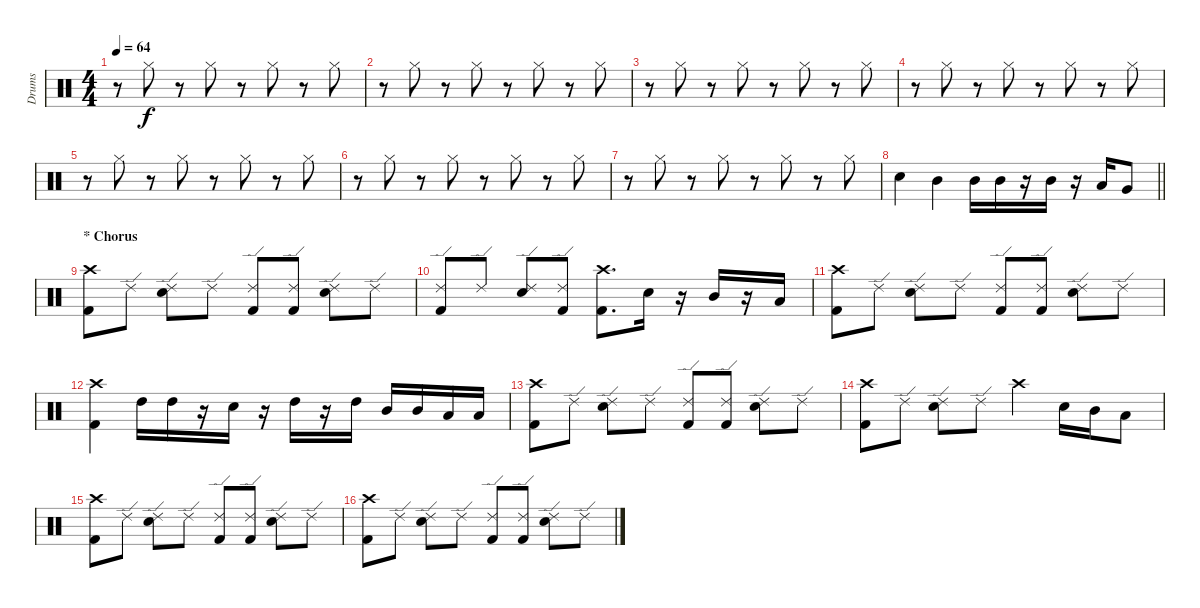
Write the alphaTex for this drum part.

\track ("Drums" "Drums") {instrument percussion}
\staff {score}
\articulation defaults
\ts (4 4)
\tempo 64
\clef neutral
\ks c
r.8{dy f} "Hi-Hat (closed)".8 r.8 "Hi-Hat (closed)".8 r.8 "Hi-Hat (closed)".8 r.8 "Hi-Hat (closed)".8 |
r.8 "Hi-Hat (closed)".8 r.8 "Hi-Hat (closed)".8 r.8 "Hi-Hat (closed)".8 r.8 "Hi-Hat (closed)".8 |
r.8 "Hi-Hat (closed)".8 r.8 "Hi-Hat (closed)".8 r.8 "Hi-Hat (closed)".8 r.8 "Hi-Hat (closed)".8 |
r.8 "Hi-Hat (closed)".8 r.8 "Hi-Hat (closed)".8 r.8 "Hi-Hat (closed)".8 r.8 "Hi-Hat (closed)".8 |
r.8 "Hi-Hat (closed)".8 r.8 "Hi-Hat (closed)".8 r.8 "Hi-Hat (closed)".8 r.8 "Hi-Hat (closed)".8 |
r.8 "Hi-Hat (closed)".8 r.8 "Hi-Hat (closed)".8 r.8 "Hi-Hat (closed)".8 r.8 "Hi-Hat (closed)".8 |
r.8 "Hi-Hat (closed)".8 r.8 "Hi-Hat (closed)".8 r.8 "Hi-Hat (closed)".8 r.8 "Hi-Hat (closed)".8 |
\barLineRight lightlight "Electric Snare (hit)".4 "Mid Tom (hit)".4 "Mid Tom (hit)".16 "Mid Tom (hit)".16
r.16 "Mid Tom (hit)".16 r.16 "Low Tom (hit)".16 "Very Low Tom (hit)".8 |
\section ("" "* Chorus")
("Crash high (hit)" "Kick (hit) 2").8 "Ride (edge) 2".8 ("Ride (edge) 2" "Electric Snare (hit)").8 "Ride (edge) 2".8 ("Ride (edge) 2" "Kick (hit) 2").8 ("Ride (edge) 2" "Kick (hit) 2").8 ("Ride (edge) 2" "Electric Snare (hit)").8 "Ride (edge) 2".8 |
("Ride (edge) 2" "Kick (hit) 2").8 "Ride (edge) 2".8 ("Ride (edge) 2" "Electric Snare (hit)").8 ("Ride (edge) 2" "Kick (hit) 2").8 ("Crash high (hit)" "Kick (hit) 2").8{d} "Electric Snare (hit)".16 r.16 "Mid Tom (hit)".16 r.16 "Low Tom (hit)".16 |
("Crash high (hit)" "Kick (hit) 2").8 "Ride (edge) 2".8 ("Ride (edge) 2" "Electric Snare (hit)").8 "Ride (edge) 2".8 ("Ride (edge) 2" "Kick (hit) 2").8 ("Ride (edge) 2" "Kick (hit) 2").8 ("Ride (edge) 2" "Electric Snare (hit)").8 "Ride (edge) 2".8 |
("Crash high (hit)" "Kick (hit) 2").4 "High Tom (hit)".16 "High Tom (hit)".16 r.16 "Electric Snare (hit)".16 r.16 "High Tom (hit)".16 r.16 "High Tom (hit)".16 "Mid Tom (hit)".16 "Mid Tom (hit)".16 "Low Tom (hit)".16 "Low Tom (hit)".16 |
("Crash high (hit)" "Kick (hit) 2").8 "Ride (edge) 2".8 ("Ride (edge) 2" "Electric Snare (hit)").8 "Ride (edge) 2".8 ("Ride (edge) 2" "Kick (hit) 2").8 ("Ride (edge) 2" "Kick (hit) 2").8 ("Ride (edge) 2" "Electric Snare (hit)").8 "Ride (edge) 2".8 |
("Crash high (hit)" "Kick (hit) 2").8 "Ride (edge) 2".8 ("Ride (edge) 2" "Electric Snare (hit)").8 "Ride (edge) 2".8 "Crash high (hit)".4 "Electric Snare (hit)".16 "Mid Tom (hit)".16 "Low Tom (hit)".8 |
("Crash high (hit)" "Kick (hit) 2").8 "Ride (edge) 2".8 ("Ride (edge) 2" "Electric Snare (hit)").8 "Ride (edge) 2".8 ("Ride (edge) 2" "Kick (hit) 2").8 ("Ride (edge) 2" "Kick (hit) 2").8 ("Ride (edge) 2" "Electric Snare (hit)").8 "Ride (edge) 2".8 |
("Crash high (hit)" "Kick (hit) 2").8 "Ride (edge) 2".8 ("Ride (edge) 2" "Electric Snare (hit)").8 "Ride (edge) 2".8 ("Ride (edge) 2" "Kick (hit) 2").8 ("Ride (edge) 2" "Kick (hit) 2").8 ("Ride (edge) 2" "Electric Snare (hit)").8 "Ride (edge) 2".8
